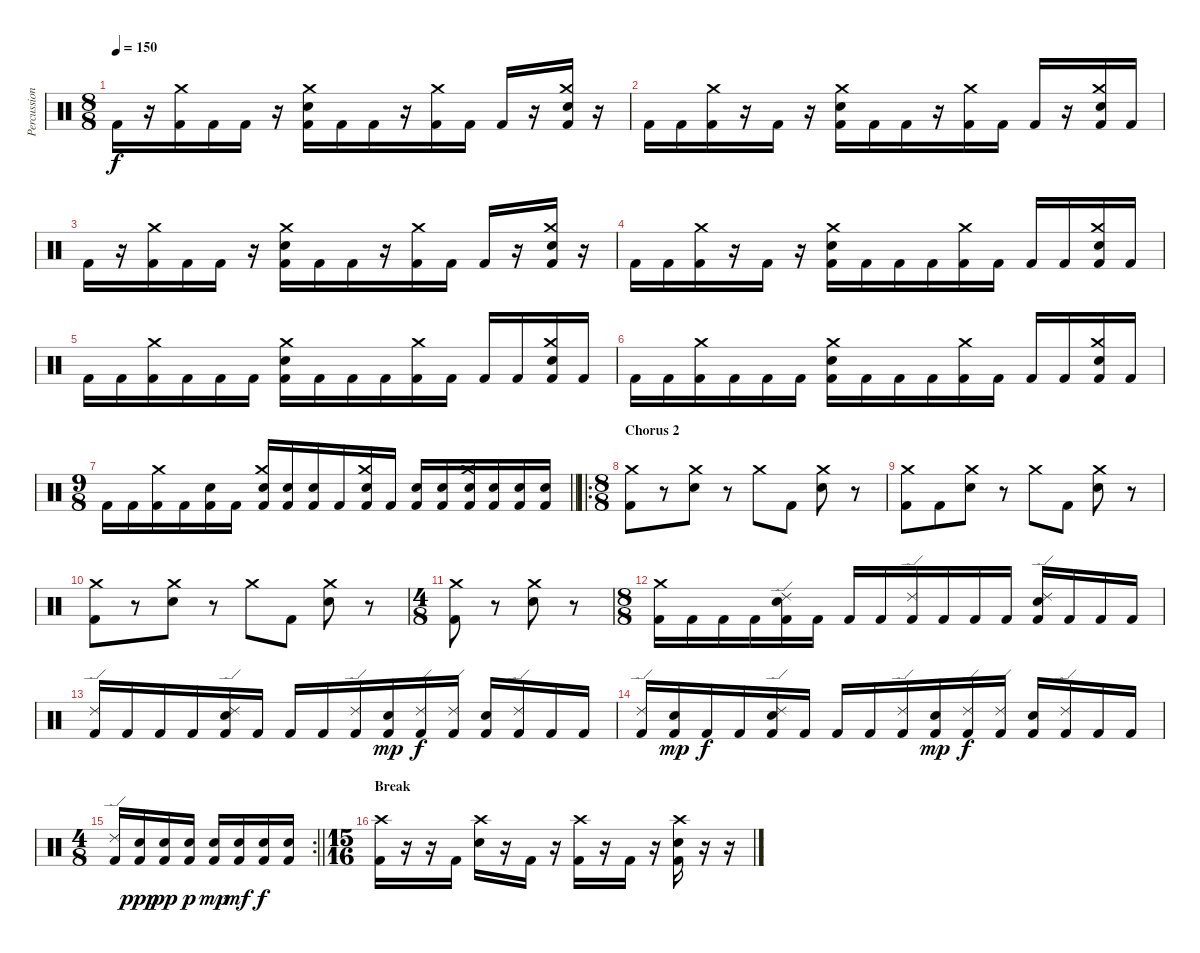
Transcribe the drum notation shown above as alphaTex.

\track ("Percussions" "Percussion") {instrument percussion}
\staff {score}
\articulation defaults
\ts (8 8)
\tempo 150
\clef neutral
\ks c "Kick (hit) 2".16{dy f}
r.16 ("Crash medium (hit)" "Kick (hit) 2").16 "Kick (hit) 2".16 "Kick (hit) 2".16 r.16 ("Crash medium (hit)" "Electric Snare (hit)" "Kick (hit) 2").16 "Kick (hit) 2".16 "Kick (hit) 2".16 r.16 ("Crash medium (hit)" "Kick (hit) 2").16 "Kick (hit) 2".16 "Kick (hit) 2".16 r.16 ("Crash medium (hit)" "Electric Snare (hit)" "Kick (hit) 2").16 r.16 |
"Kick (hit) 2".16 "Kick (hit) 2".16 ("Crash medium (hit)" "Kick (hit) 2").16 r.16 "Kick (hit) 2".16 r.16 ("Crash medium (hit)" "Electric Snare (hit)" "Kick (hit) 2").16 "Kick (hit) 2".16 "Kick (hit) 2".16 r.16 ("Crash medium (hit)" "Kick (hit) 2").16 "Kick (hit) 2".16 "Kick (hit) 2".16 r.16 ("Crash medium (hit)" "Electric Snare (hit)" "Kick (hit) 2").16 "Kick (hit) 2".16 |
"Kick (hit) 2".16 r.16 ("Crash medium (hit)" "Kick (hit) 2").16 "Kick (hit) 2".16 "Kick (hit) 2".16 r.16 ("Crash medium (hit)" "Electric Snare (hit)" "Kick (hit) 2").16 "Kick (hit) 2".16 "Kick (hit) 2".16 r.16 ("Crash medium (hit)" "Kick (hit) 2").16 "Kick (hit) 2".16 "Kick (hit) 2".16 r.16 ("Crash medium (hit)" "Electric Snare (hit)" "Kick (hit) 2").16 r.16 |
"Kick (hit) 2".16 "Kick (hit) 2".16 ("Crash medium (hit)" "Kick (hit) 2").16 r.16 "Kick (hit) 2".16 r.16 ("Crash medium (hit)" "Electric Snare (hit)" "Kick (hit) 2").16 "Kick (hit) 2".16 "Kick (hit) 2".16 "Kick (hit) 2".16 ("Crash medium (hit)" "Kick (hit) 2").16 "Kick (hit) 2".16 "Kick (hit) 2".16 "Kick (hit) 2".16 ("Crash medium (hit)" "Electric Snare (hit)" "Kick (hit) 2").16 "Kick (hit) 2".16 |
"Kick (hit) 2".16 "Kick (hit) 2".16 ("Crash medium (hit)" "Kick (hit) 2").16 "Kick (hit) 2".16 "Kick (hit) 2".16 "Kick (hit) 2".16 ("Crash medium (hit)" "Electric Snare (hit)" "Kick (hit) 2").16 "Kick (hit) 2".16 "Kick (hit) 2".16 "Kick (hit) 2".16 ("Crash medium (hit)" "Kick (hit) 2").16 "Kick (hit) 2".16 "Kick (hit) 2".16 "Kick (hit) 2".16 ("Crash medium (hit)" "Electric Snare (hit)" "Kick (hit) 2").16 "Kick (hit) 2".16 |
"Kick (hit) 2".16 "Kick (hit) 2".16 ("Crash medium (hit)" "Kick (hit) 2").16 "Kick (hit) 2".16 "Kick (hit) 2".16 "Kick (hit) 2".16 ("Crash medium (hit)" "Electric Snare (hit)" "Kick (hit) 2").16 "Kick (hit) 2".16 "Kick (hit) 2".16 "Kick (hit) 2".16 ("Crash medium (hit)" "Kick (hit) 2").16 "Kick (hit) 2".16 "Kick (hit) 2".16 "Kick (hit) 2".16 ("Crash medium (hit)" "Electric Snare (hit)" "Kick (hit) 2").16 "Kick (hit) 2".16 |
\ts (9 8)
\barLineRight lightlight "Kick (hit) 2".16 "Kick (hit) 2".16
("Crash medium (hit)" "Kick (hit) 2").16 "Kick (hit) 2".16 ("Electric Snare (hit)" "Kick (hit) 2").16 "Kick (hit) 2".16 ("Crash medium (hit)" "Electric Snare (hit)" "Kick (hit) 2").16 ("Electric Snare (hit)" "Kick (hit) 2").16 ("Electric Snare (hit)" "Kick (hit) 2").16 "Kick (hit) 2".16 ("Crash medium (hit)" "Electric Snare (hit)" "Kick (hit) 2").16 "Kick (hit) 2".16 ("Electric Snare (hit)" "Kick (hit) 2").16 ("Electric Snare (hit)" "Kick (hit) 2").16 ("Crash medium (hit)" "Electric Snare (hit)" "Kick (hit) 2").16 ("Electric Snare (hit)" "Kick (hit) 2").16 ("Electric Snare (hit)" "Kick (hit) 2").16 ("Electric Snare (hit)" "Kick (hit) 2").16 |
\ro
\ts (8 8)
\section ("" "Chorus 2")
("Crash medium (hit)" "Kick (hit) 2").8 r.8 ("Crash medium (hit)" "Electric Snare (hit)").8 r.8 "Crash medium (hit)".8 "Kick (hit) 2".8 ("Crash medium (hit)" "Electric Snare (hit)").8 r.8 |
("Crash medium (hit)" "Kick (hit) 2").8 "Kick (hit) 2".8 ("Crash medium (hit)" "Electric Snare (hit)").8 r.8 "Crash medium (hit)".8 "Kick (hit) 2".8 ("Crash medium (hit)" "Electric Snare (hit)").8 r.8 |
("Crash medium (hit)" "Kick (hit) 2").8 r.8 ("Crash medium (hit)" "Electric Snare (hit)").8 r.8 "Crash medium (hit)".8 "Kick (hit) 2".8 ("Crash medium (hit)" "Electric Snare (hit)").8 r.8 |
\ts (4 8)
("Crash medium (hit)" "Kick (hit) 2").8 r.8 ("Crash medium (hit)" "Electric Snare (hit)").8 r.8 |
\ts (8 8)
("Crash medium (hit)" "Kick (hit) 2").16 "Kick (hit) 2".16 "Kick (hit) 2".16 "Kick (hit) 2".16 ("Ride (edge) 2" "Electric Snare (hit)" "Kick (hit) 2").16 "Kick (hit) 2".16 "Kick (hit) 2".16 "Kick (hit) 2".16 ("Ride (edge) 2" "Kick (hit) 2").16 "Kick (hit) 2".16 "Kick (hit) 2".16 "Kick (hit) 2".16 ("Ride (edge) 2" "Electric Snare (hit)" "Kick (hit) 2").16 "Kick (hit) 2".16 "Kick (hit) 2".16 "Kick (hit) 2".16 |
("Ride (edge) 2" "Kick (hit) 2").16 "Kick (hit) 2".16 "Kick (hit) 2".16 "Kick (hit) 2".16 ("Ride (edge) 2" "Electric Snare (hit)" "Kick (hit) 2").16 "Kick (hit) 2".16 "Kick (hit) 2".16 "Kick (hit) 2".16 ("Ride (edge) 2" "Kick (hit) 2").16 ("Electric Snare (hit)" "Kick (hit) 2").16{dy mp} ("Ride (edge) 2" "Kick (hit) 2").16{dy f} ("Ride (edge) 2" "Kick (hit) 2").16 ("Electric Snare (hit)" "Kick (hit) 2").16 ("Ride (edge) 2" "Kick (hit) 2").16 "Kick (hit) 2".16 "Kick (hit) 2".16 |
("Ride (edge) 2" "Kick (hit) 2").16 ("Electric Snare (hit)" "Kick (hit) 2").16{dy mp} "Kick (hit) 2".16{dy f} "Kick (hit) 2".16 ("Ride (edge) 2" "Electric Snare (hit)" "Kick (hit) 2").16 "Kick (hit) 2".16 "Kick (hit) 2".16 "Kick (hit) 2".16 ("Ride (edge) 2" "Kick (hit) 2").16 ("Electric Snare (hit)" "Kick (hit) 2").16{dy mp} ("Ride (edge) 2" "Kick (hit) 2").16{dy f} ("Ride (edge) 2" "Kick (hit) 2").16 ("Electric Snare (hit)" "Kick (hit) 2").16 ("Ride (edge) 2" "Kick (hit) 2").16 "Kick (hit) 2".16 "Kick (hit) 2".16 |
\rc 2
\ts (4 8)
\barLineRight lightlight
("Ride (edge) 2" "Kick (hit) 2").16 ("Electric Snare (hit)" "Kick (hit) 2").16{dy ppp} ("Electric Snare (hit)" "Kick (hit) 2").16{dy pp} ("Electric Snare (hit)" "Kick (hit) 2").16{dy p} ("Electric Snare (hit)" "Kick (hit) 2").16{dy mp} ("Electric Snare (hit)" "Kick (hit) 2").16{dy mf} ("Electric Snare (hit)" "Kick (hit) 2").16{dy f} ("Electric Snare (hit)" "Kick (hit) 2").16 |
\ts (15 16)
\section ("" "Break")
("Crash high (hit)" "Kick (hit) 2").16 r.16 r.16 "Kick (hit) 2".16 ("Crash high (hit)" "Electric Snare (hit)").16 r.16 "Kick (hit) 2".16 r.16 ("Crash high (hit)" "Kick (hit) 2").16 r.16 "Kick (hit) 2".16 r.16 ("Crash high (hit)" "Electric Snare (hit)" "Kick (hit) 2").16 r.16 r.16
